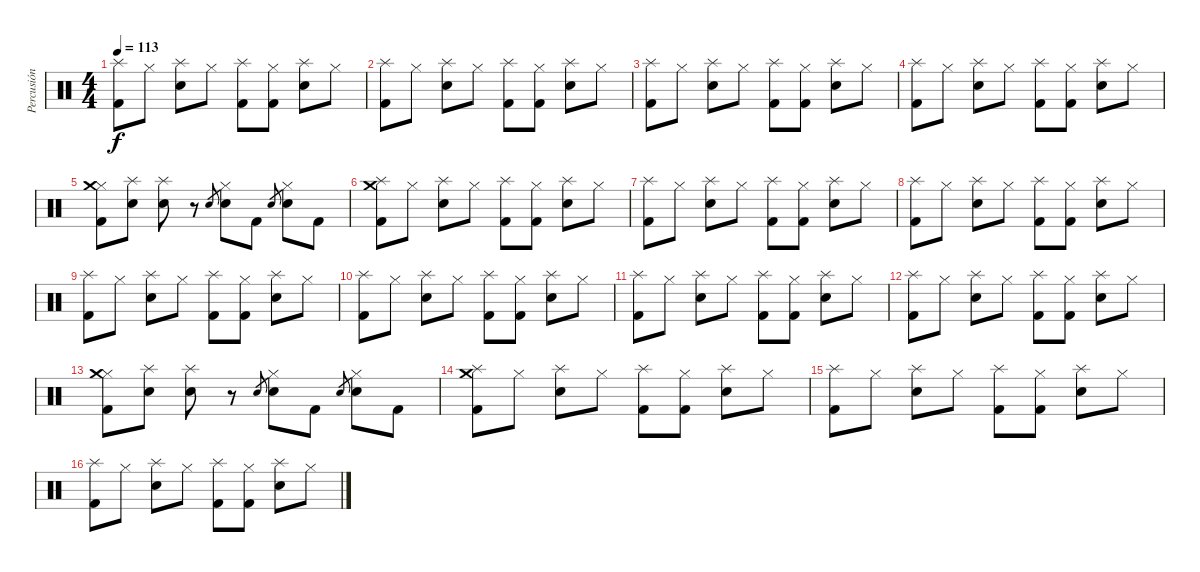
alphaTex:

\track ("Percusión" "Percusión") {instrument percussion}
\staff {score}
\articulation defaults
\ts (4 4)
\tempo 113
\clef neutral
\ks c
("Kick (hit) 2" "Splash (hit)").8{dy f} "Hi-Hat (closed)".8 ("Electric Snare (hit)" "Splash (hit)").8 "Hi-Hat (closed)".8 ("Kick (hit) 2" "Splash (hit)").8 ("Kick (hit) 2" "Hi-Hat (closed)").8 ("Electric Snare (hit)" "Splash (hit)").8 "Hi-Hat (closed)".8 |
("Kick (hit) 2" "Splash (hit)").8 "Hi-Hat (closed)".8 ("Electric Snare (hit)" "Splash (hit)").8 "Hi-Hat (closed)".8 ("Kick (hit) 2" "Splash (hit)").8 ("Kick (hit) 2" "Hi-Hat (closed)").8 ("Electric Snare (hit)" "Splash (hit)").8 "Hi-Hat (closed)".8 |
("Kick (hit) 2" "Splash (hit)").8 "Hi-Hat (closed)".8 ("Electric Snare (hit)" "Splash (hit)").8 "Hi-Hat (closed)".8 ("Kick (hit) 2" "Splash (hit)").8 ("Kick (hit) 2" "Hi-Hat (closed)").8 ("Electric Snare (hit)" "Splash (hit)").8 "Hi-Hat (closed)".8 |
("Kick (hit) 2" "Splash (hit)").8 "Hi-Hat (closed)".8 ("Electric Snare (hit)" "Splash (hit)").8 "Hi-Hat (closed)".8 ("Kick (hit) 2" "Splash (hit)").8 ("Kick (hit) 2" "Hi-Hat (closed)").8 ("Electric Snare (hit)" "Splash (hit)").8 "Hi-Hat (closed)".8 |
("Kick (hit) 2" "Hi-Hat (closed)" "Crash medium (hit)").8 ("Electric Snare (hit)" "Splash (hit)").8 ("Electric Snare (hit)" "Splash (hit)").8 r.8 "Electric Snare (hit)".8{gr} ("Electric Snare (hit)" "Hi-Hat (closed)").8 "Kick (hit) 2".8 "Electric Snare (hit)".8{gr} ("Electric Snare (hit)" "Hi-Hat (closed)").8 "Kick (hit) 2".8 |
("Kick (hit) 2" "Splash (hit)" "Crash medium (hit)").8 "Hi-Hat (closed)".8 ("Electric Snare (hit)" "Splash (hit)").8 "Hi-Hat (closed)".8 ("Kick (hit) 2" "Splash (hit)").8 ("Kick (hit) 2" "Hi-Hat (closed)").8 ("Electric Snare (hit)" "Splash (hit)").8 "Hi-Hat (closed)".8 |
("Kick (hit) 2" "Splash (hit)").8 "Hi-Hat (closed)".8 ("Electric Snare (hit)" "Splash (hit)").8 "Hi-Hat (closed)".8 ("Kick (hit) 2" "Splash (hit)").8 ("Kick (hit) 2" "Hi-Hat (closed)").8 ("Electric Snare (hit)" "Splash (hit)").8 "Hi-Hat (closed)".8 |
("Kick (hit) 2" "Splash (hit)").8 "Hi-Hat (closed)".8 ("Electric Snare (hit)" "Splash (hit)").8 "Hi-Hat (closed)".8 ("Kick (hit) 2" "Splash (hit)").8 ("Kick (hit) 2" "Hi-Hat (closed)").8 ("Electric Snare (hit)" "Splash (hit)").8 "Hi-Hat (closed)".8 |
("Kick (hit) 2" "Splash (hit)").8 "Hi-Hat (closed)".8 ("Electric Snare (hit)" "Splash (hit)").8 "Hi-Hat (closed)".8 ("Kick (hit) 2" "Splash (hit)").8 ("Kick (hit) 2" "Hi-Hat (closed)").8 ("Electric Snare (hit)" "Splash (hit)").8 "Hi-Hat (closed)".8 |
("Kick (hit) 2" "Splash (hit)").8 "Hi-Hat (closed)".8 ("Electric Snare (hit)" "Splash (hit)").8 "Hi-Hat (closed)".8 ("Kick (hit) 2" "Splash (hit)").8 ("Kick (hit) 2" "Hi-Hat (closed)").8 ("Electric Snare (hit)" "Splash (hit)").8 "Hi-Hat (closed)".8 |
("Kick (hit) 2" "Splash (hit)").8 "Hi-Hat (closed)".8 ("Electric Snare (hit)" "Splash (hit)").8 "Hi-Hat (closed)".8 ("Kick (hit) 2" "Splash (hit)").8 ("Kick (hit) 2" "Hi-Hat (closed)").8 ("Electric Snare (hit)" "Splash (hit)").8 "Hi-Hat (closed)".8 |
("Kick (hit) 2" "Splash (hit)").8 "Hi-Hat (closed)".8 ("Electric Snare (hit)" "Splash (hit)").8 "Hi-Hat (closed)".8 ("Kick (hit) 2" "Splash (hit)").8 ("Kick (hit) 2" "Hi-Hat (closed)").8 ("Electric Snare (hit)" "Splash (hit)").8 "Hi-Hat (closed)".8 |
("Kick (hit) 2" "Hi-Hat (closed)" "Crash medium (hit)").8 ("Electric Snare (hit)" "Splash (hit)").8 ("Electric Snare (hit)" "Splash (hit)").8 r.8 "Electric Snare (hit)".8{gr} ("Electric Snare (hit)" "Hi-Hat (closed)").8 "Kick (hit) 2".8 "Electric Snare (hit)".8{gr} ("Electric Snare (hit)" "Hi-Hat (closed)").8 "Kick (hit) 2".8 |
("Kick (hit) 2" "Splash (hit)" "Crash medium (hit)").8 "Hi-Hat (closed)".8 ("Electric Snare (hit)" "Splash (hit)").8 "Hi-Hat (closed)".8 ("Kick (hit) 2" "Splash (hit)").8 ("Kick (hit) 2" "Hi-Hat (closed)").8 ("Electric Snare (hit)" "Splash (hit)").8 "Hi-Hat (closed)".8 |
("Kick (hit) 2" "Splash (hit)").8 "Hi-Hat (closed)".8 ("Electric Snare (hit)" "Splash (hit)").8 "Hi-Hat (closed)".8 ("Kick (hit) 2" "Splash (hit)").8 ("Kick (hit) 2" "Hi-Hat (closed)").8 ("Electric Snare (hit)" "Splash (hit)").8 "Hi-Hat (closed)".8 |
("Kick (hit) 2" "Splash (hit)").8 "Hi-Hat (closed)".8 ("Electric Snare (hit)" "Splash (hit)").8 "Hi-Hat (closed)".8 ("Kick (hit) 2" "Splash (hit)").8 ("Kick (hit) 2" "Hi-Hat (closed)").8 ("Electric Snare (hit)" "Splash (hit)").8 "Hi-Hat (closed)".8
